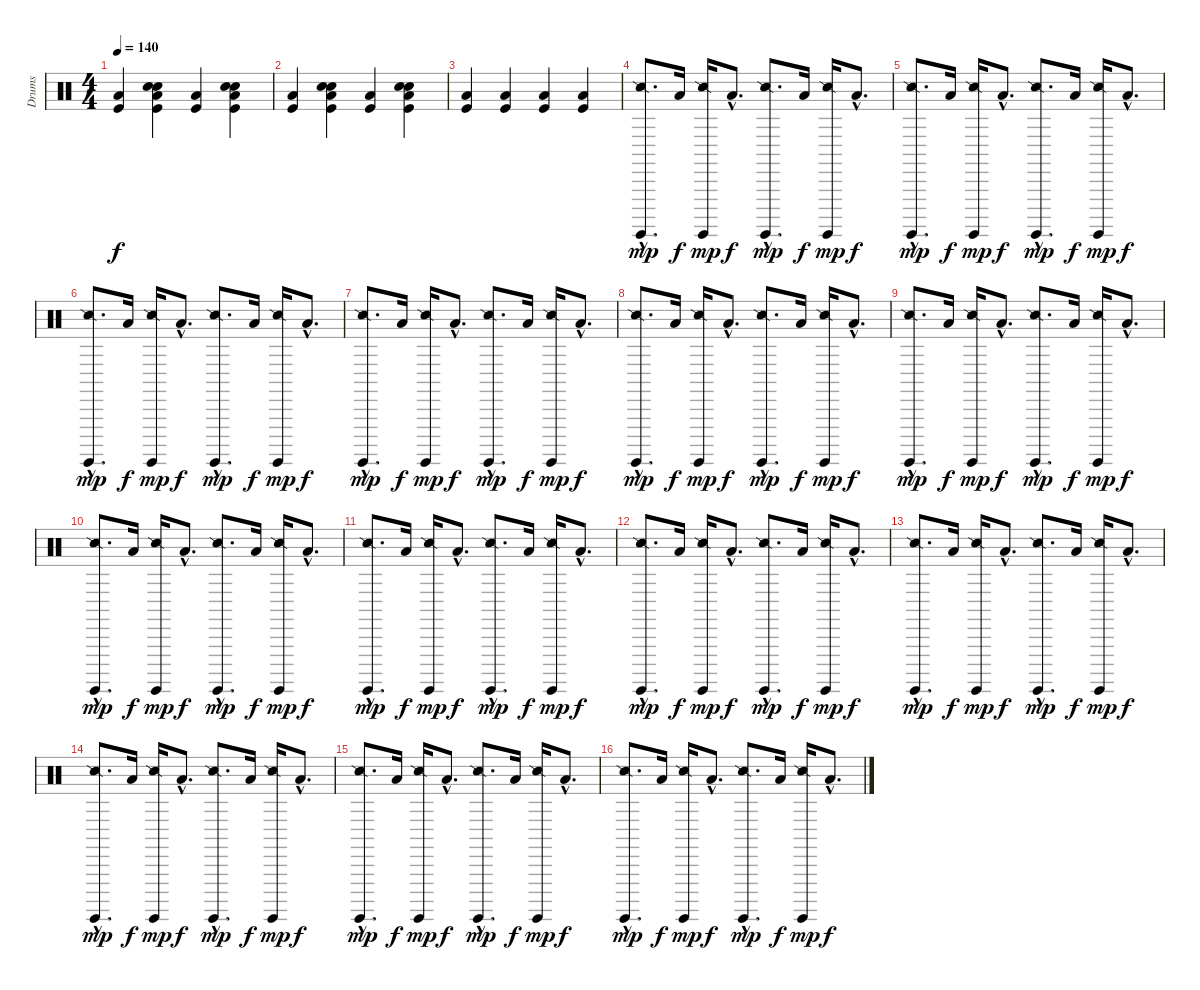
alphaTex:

\track ("Drums" "Drums") {instrument percussion}
\staff {score}
\articulation defaults
\ts (4 4)
\tempo 140
\clef neutral
\ks c
("Low Floor Tom (hit)" "Kick (hit)").4{dy f} ("Hand Clap (hit)" "Snare (hit) 2" "Low Floor Tom (hit)" "Kick (hit)").4 ("Low Floor Tom (hit)" "Kick (hit)").4 ("Hand Clap (hit)" "Snare (hit) 2" "Low Floor Tom (hit)" "Kick (hit)").4 |
("Low Floor Tom (hit)" "Kick (hit)").4 ("Hand Clap (hit)" "Snare (hit) 2" "Low Floor Tom (hit)" "Kick (hit)").4 ("Low Floor Tom (hit)" "Kick (hit)").4 ("Hand Clap (hit)" "Snare (hit) 2" "Low Floor Tom (hit)" "Kick (hit)").4 |
("Low Floor Tom (hit)" "Kick (hit)").4 ("Low Floor Tom (hit)" "Kick (hit)").4 ("Low Floor Tom (hit)" "Kick (hit)").4 ("Low Floor Tom (hit)" "Kick (hit)").4 |
("Surdo (hit)"{hac} "Snare (side stick) 2"{hac}).8{d dy mp} "Low Floor Tom (hit)".16{dy f} ("Surdo (hit)" "Snare (side stick) 2").16{dy mp} "Low Floor Tom (hit)"{hac}.8{d dy f} ("Surdo (hit)"{hac} "Snare (side stick) 2"{hac}).8{d dy mp} "Low Floor Tom (hit)".16{dy f} ("Surdo (hit)" "Snare (side stick) 2").16{dy mp} "Low Floor Tom (hit)"{hac}.8{d dy f} |
("Surdo (hit)"{hac} "Snare (side stick) 2"{hac}).8{d dy mp} "Low Floor Tom (hit)".16{dy f} ("Surdo (hit)" "Snare (side stick) 2").16{dy mp} "Low Floor Tom (hit)"{hac}.8{d dy f} ("Surdo (hit)"{hac} "Snare (side stick) 2"{hac}).8{d dy mp} "Low Floor Tom (hit)".16{dy f} ("Surdo (hit)" "Snare (side stick) 2").16{dy mp} "Low Floor Tom (hit)"{hac}.8{d dy f} |
("Surdo (hit)"{hac} "Snare (side stick) 2"{hac}).8{d dy mp} "Low Floor Tom (hit)".16{dy f} ("Surdo (hit)" "Snare (side stick) 2").16{dy mp} "Low Floor Tom (hit)"{hac}.8{d dy f} ("Surdo (hit)"{hac} "Snare (side stick) 2"{hac}).8{d dy mp} "Low Floor Tom (hit)".16{dy f} ("Surdo (hit)" "Snare (side stick) 2").16{dy mp} "Low Floor Tom (hit)"{hac}.8{d dy f} |
("Surdo (hit)"{hac} "Snare (side stick) 2"{hac}).8{d dy mp} "Low Floor Tom (hit)".16{dy f} ("Surdo (hit)" "Snare (side stick) 2").16{dy mp} "Low Floor Tom (hit)"{hac}.8{d dy f} ("Surdo (hit)"{hac} "Snare (side stick) 2"{hac}).8{d dy mp} "Low Floor Tom (hit)".16{dy f} ("Surdo (hit)" "Snare (side stick) 2").16{dy mp} "Low Floor Tom (hit)"{hac}.8{d dy f} |
("Surdo (hit)"{hac} "Snare (side stick) 2"{hac}).8{d dy mp} "Low Floor Tom (hit)".16{dy f} ("Surdo (hit)" "Snare (side stick) 2").16{dy mp} "Low Floor Tom (hit)"{hac}.8{d dy f} ("Surdo (hit)"{hac} "Snare (side stick) 2"{hac}).8{d dy mp} "Low Floor Tom (hit)".16{dy f} ("Surdo (hit)" "Snare (side stick) 2").16{dy mp} "Low Floor Tom (hit)"{hac}.8{d dy f} |
("Surdo (hit)"{hac} "Snare (side stick) 2"{hac}).8{d dy mp} "Low Floor Tom (hit)".16{dy f} ("Surdo (hit)" "Snare (side stick) 2").16{dy mp} "Low Floor Tom (hit)"{hac}.8{d dy f} ("Surdo (hit)"{hac} "Snare (side stick) 2"{hac}).8{d dy mp} "Low Floor Tom (hit)".16{dy f} ("Surdo (hit)" "Snare (side stick) 2").16{dy mp} "Low Floor Tom (hit)"{hac}.8{d dy f} |
("Surdo (hit)"{hac} "Snare (side stick) 2"{hac}).8{d dy mp} "Low Floor Tom (hit)".16{dy f} ("Surdo (hit)" "Snare (side stick) 2").16{dy mp} "Low Floor Tom (hit)"{hac}.8{d dy f} ("Surdo (hit)"{hac} "Snare (side stick) 2"{hac}).8{d dy mp} "Low Floor Tom (hit)".16{dy f} ("Surdo (hit)" "Snare (side stick) 2").16{dy mp} "Low Floor Tom (hit)"{hac}.8{d dy f} |
("Surdo (hit)"{hac} "Snare (side stick) 2"{hac}).8{d dy mp} "Low Floor Tom (hit)".16{dy f} ("Surdo (hit)" "Snare (side stick) 2").16{dy mp} "Low Floor Tom (hit)"{hac}.8{d dy f} ("Surdo (hit)"{hac} "Snare (side stick) 2"{hac}).8{d dy mp} "Low Floor Tom (hit)".16{dy f} ("Surdo (hit)" "Snare (side stick) 2").16{dy mp} "Low Floor Tom (hit)"{hac}.8{d dy f} |
("Surdo (hit)"{hac} "Snare (side stick) 2"{hac}).8{d dy mp} "Low Floor Tom (hit)".16{dy f} ("Surdo (hit)" "Snare (side stick) 2").16{dy mp} "Low Floor Tom (hit)"{hac}.8{d dy f} ("Surdo (hit)"{hac} "Snare (side stick) 2"{hac}).8{d dy mp} "Low Floor Tom (hit)".16{dy f} ("Surdo (hit)" "Snare (side stick) 2").16{dy mp} "Low Floor Tom (hit)"{hac}.8{d dy f} |
("Surdo (hit)"{hac} "Snare (side stick) 2"{hac}).8{d dy mp} "Low Floor Tom (hit)".16{dy f} ("Surdo (hit)" "Snare (side stick) 2").16{dy mp} "Low Floor Tom (hit)"{hac}.8{d dy f} ("Surdo (hit)"{hac} "Snare (side stick) 2"{hac}).8{d dy mp} "Low Floor Tom (hit)".16{dy f} ("Surdo (hit)" "Snare (side stick) 2").16{dy mp} "Low Floor Tom (hit)"{hac}.8{d dy f} |
("Surdo (hit)"{hac} "Snare (side stick) 2"{hac}).8{d dy mp} "Low Floor Tom (hit)".16{dy f} ("Surdo (hit)" "Snare (side stick) 2").16{dy mp} "Low Floor Tom (hit)"{hac}.8{d dy f} ("Surdo (hit)"{hac} "Snare (side stick) 2"{hac}).8{d dy mp} "Low Floor Tom (hit)".16{dy f} ("Surdo (hit)" "Snare (side stick) 2").16{dy mp} "Low Floor Tom (hit)"{hac}.8{d dy f} |
("Surdo (hit)"{hac} "Snare (side stick) 2"{hac}).8{d dy mp} "Low Floor Tom (hit)".16{dy f} ("Surdo (hit)" "Snare (side stick) 2").16{dy mp} "Low Floor Tom (hit)"{hac}.8{d dy f} ("Surdo (hit)"{hac} "Snare (side stick) 2"{hac}).8{d dy mp} "Low Floor Tom (hit)".16{dy f} ("Surdo (hit)" "Snare (side stick) 2").16{dy mp} "Low Floor Tom (hit)"{hac}.8{d dy f} |
("Surdo (hit)"{hac} "Snare (side stick) 2"{hac}).8{d dy mp} "Low Floor Tom (hit)".16{dy f} ("Surdo (hit)" "Snare (side stick) 2").16{dy mp} "Low Floor Tom (hit)"{hac}.8{d dy f} ("Surdo (hit)"{hac} "Snare (side stick) 2"{hac}).8{d dy mp} "Low Floor Tom (hit)".16{dy f} ("Surdo (hit)" "Snare (side stick) 2").16{dy mp} "Low Floor Tom (hit)"{hac}.8{d dy f}
